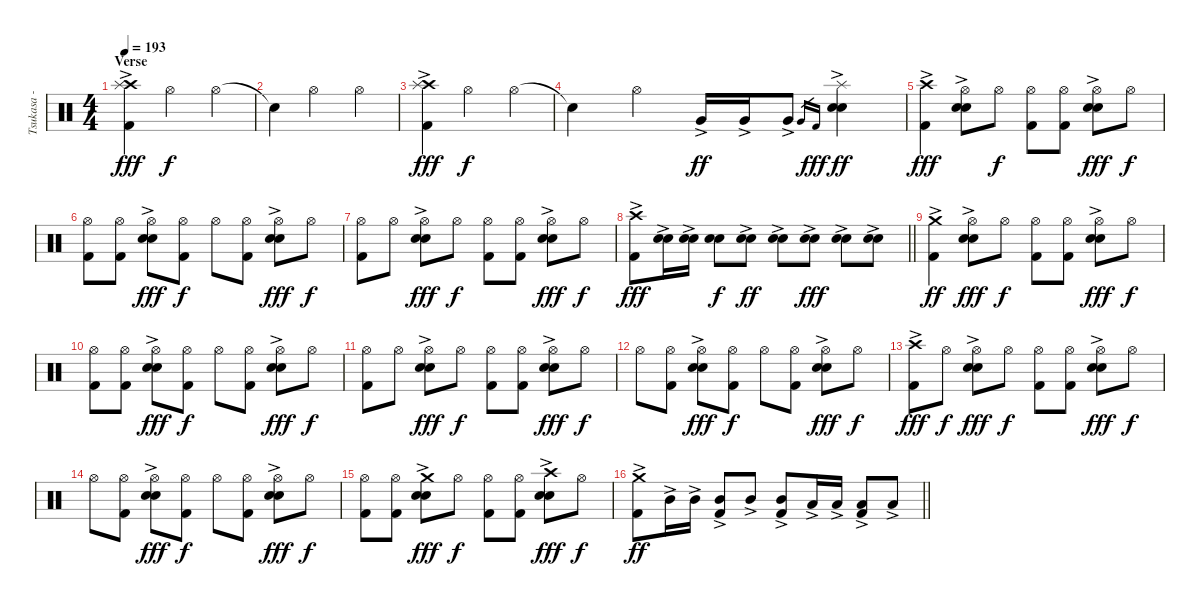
\track ("Tsukasa - Drums" "Tsukasa - ") {instrument percussion}
\staff {score}
\articulation defaults
\ts (4 4)
\section ("" "Verse")
\tempo 193
\clef neutral
\ks c
("Crash high (hit)"{ac} "Splash (hit)"{ac} "Kick (hit) 2").4{dy fff} "Hi-Hat (open)".2{dy f} "Hi-Hat (open)".4 |
"Snare (hit)"{t}.4 "Hi-Hat (open)".2 "Hi-Hat (open)".4 |
("Crash high (hit)"{ac} "Splash (hit)"{ac} "Kick (hit) 2").4{dy fff} "Hi-Hat (open)".2{dy f} "Hi-Hat (open)".4 |
"Snare (hit)"{t}.4 "Hi-Hat (open)".4 "Very Low Tom (hit)"{ac}.16{dy ff} "Very Low Tom (hit)"{ac}.16 "Very Low Tom (hit)"{ac}.8 "Very Low Tom (hit)".16{gr} "Kick (hit) 2".16{gr dy fff} ("Splash (hit)"{ac} "Electric Snare (hit)"{ac} "Snare (hit) 2").4{dy ff} |
("Crash high (hit)"{ac} "Kick (hit) 2").4{dy fff} ("Hi-Hat (open)" "Electric Snare (hit)"{ac} "Snare (hit) 2").8 "Hi-Hat (open)".8{dy f} ("Hi-Hat (open)" "Kick (hit) 2").8 ("Hi-Hat (open)" "Kick (hit) 2").8 ("Hi-Hat (open)" "Electric Snare (hit)"{ac} "Snare (hit) 2").8{dy fff} "Hi-Hat (open)".8{dy f} |
("Hi-Hat (open)" "Kick (hit) 2").8 ("Hi-Hat (open)" "Kick (hit) 2").8 ("Hi-Hat (open)" "Electric Snare (hit)"{ac} "Snare (hit) 2").8{dy fff} ("Hi-Hat (open)" "Kick (hit) 2").8{dy f} "Hi-Hat (open)".8 ("Hi-Hat (open)" "Kick (hit) 2").8 ("Hi-Hat (open)" "Electric Snare (hit)"{ac} "Snare (hit) 2").8{dy fff} "Hi-Hat (open)".8{dy f} |
("Hi-Hat (open)" "Kick (hit) 2").8 "Hi-Hat (open)".8 ("Hi-Hat (open)" "Electric Snare (hit)"{ac} "Snare (hit) 2").8{dy fff} "Hi-Hat (open)".8{dy f} ("Hi-Hat (open)" "Kick (hit) 2").8 ("Hi-Hat (open)" "Kick (hit) 2").8 ("Hi-Hat (open)" "Electric Snare (hit)"{ac} "Snare (hit) 2").8{dy fff} "Hi-Hat (open)".8{dy f} |
\barLineRight lightlight
("Crash high (hit)"{ac} "Kick (hit) 2").8{dy fff} ("Electric Snare (hit)"{ac} "Snare (hit) 2").16 ("Electric Snare (hit)"{ac} "Snare (hit) 2").16 ("Electric Snare (hit)" "Snare (hit) 2").8{dy f} ("Electric Snare (hit)"{ac} "Snare (hit) 2").8{dy ff} ("Electric Snare (hit)"{ac} "Snare (hit) 2").8 ("Electric Snare (hit)"{ac} "Snare (hit) 2").8{dy fff} ("Electric Snare (hit)"{ac} "Snare (hit) 2").8 ("Electric Snare (hit)"{ac} "Snare (hit) 2").8 |
\section ("" "")
("Crash medium (hit)"{ac} "Kick (hit) 2").4{dy ff} ("Hi-Hat (open)" "Electric Snare (hit)"{ac} "Snare (hit) 2").8{dy fff} "Hi-Hat (open)".8{dy f} ("Hi-Hat (open)" "Kick (hit) 2").8 ("Hi-Hat (open)" "Kick (hit) 2").8 ("Hi-Hat (open)" "Electric Snare (hit)"{ac} "Snare (hit) 2").8{dy fff} "Hi-Hat (open)".8{dy f} |
("Hi-Hat (open)" "Kick (hit) 2").8 ("Hi-Hat (open)" "Kick (hit) 2").8 ("Hi-Hat (open)" "Electric Snare (hit)"{ac} "Snare (hit) 2").8{dy fff} ("Hi-Hat (open)" "Kick (hit) 2").8{dy f} "Hi-Hat (open)".8 ("Hi-Hat (open)" "Kick (hit) 2").8 ("Hi-Hat (open)" "Electric Snare (hit)"{ac} "Snare (hit) 2").8{dy fff} "Hi-Hat (open)".8{dy f} |
("Hi-Hat (open)" "Kick (hit) 2").8 "Hi-Hat (open)".8 ("Hi-Hat (open)" "Electric Snare (hit)"{ac} "Snare (hit) 2").8{dy fff} "Hi-Hat (open)".8{dy f} ("Hi-Hat (open)" "Kick (hit) 2").8 ("Hi-Hat (open)" "Kick (hit) 2").8 ("Hi-Hat (open)" "Electric Snare (hit)"{ac} "Snare (hit) 2").8{dy fff} "Hi-Hat (open)".8{dy f} |
"Hi-Hat (open)".8 ("Hi-Hat (open)" "Kick (hit) 2").8 ("Hi-Hat (open)" "Electric Snare (hit)"{ac} "Snare (hit) 2").8{dy fff} ("Hi-Hat (open)" "Kick (hit) 2").8{dy f} "Hi-Hat (open)".8 ("Hi-Hat (open)" "Kick (hit) 2").8 ("Hi-Hat (open)" "Electric Snare (hit)"{ac} "Snare (hit) 2").8{dy fff} "Hi-Hat (open)".8{dy f} |
("Crash high (hit)"{ac} "Kick (hit) 2").8{dy fff} "Hi-Hat (open)".8{dy f} ("Hi-Hat (open)" "Electric Snare (hit)"{ac} "Snare (hit) 2").8{dy fff} "Hi-Hat (open)".8{dy f} ("Hi-Hat (open)" "Kick (hit) 2").8 ("Hi-Hat (open)" "Kick (hit) 2").8 ("Hi-Hat (open)" "Electric Snare (hit)"{ac} "Snare (hit) 2").8{dy fff} "Hi-Hat (open)".8{dy f} |
"Hi-Hat (open)".8 ("Hi-Hat (open)" "Kick (hit) 2").8 ("Hi-Hat (open)" "Electric Snare (hit)"{ac} "Snare (hit) 2").8{dy fff} ("Hi-Hat (open)" "Kick (hit) 2").8{dy f} "Hi-Hat (open)".8 ("Hi-Hat (open)" "Kick (hit) 2").8 ("Hi-Hat (open)" "Electric Snare (hit)"{ac} "Snare (hit) 2").8{dy fff} "Hi-Hat (open)".8{dy f} |
("Hi-Hat (open)" "Kick (hit) 2").8 ("Hi-Hat (open)" "Kick (hit) 2").8 ("Crash medium (hit)"{ac} "Electric Snare (hit)"{ac} "Snare (hit) 2").8{dy fff} "Hi-Hat (open)".8{dy f} ("Hi-Hat (open)" "Kick (hit) 2").8 ("Hi-Hat (open)" "Kick (hit) 2").8 ("Crash high (hit)"{ac} "Electric Snare (hit)"{ac} "Snare (hit) 2").8{dy fff} "Hi-Hat (open)".8{dy f} |
\barLineRight lightlight
("Crash medium (hit)"{ac} "Kick (hit) 2").8{dy ff} "Mid Tom (hit)"{ac}.16 "Mid Tom (hit)"{ac}.16 ("Mid Tom (hit)"{ac} "Kick (hit) 2").8 "Mid Tom (hit)"{ac}.8 ("Mid Tom (hit)"{ac} "Kick (hit) 2").8 "Low Tom (hit)"{ac}.16 "Low Tom (hit)"{ac}.16 ("Low Tom (hit)"{ac} "Kick (hit) 2").8 "Low Tom (hit)"{ac}.8
